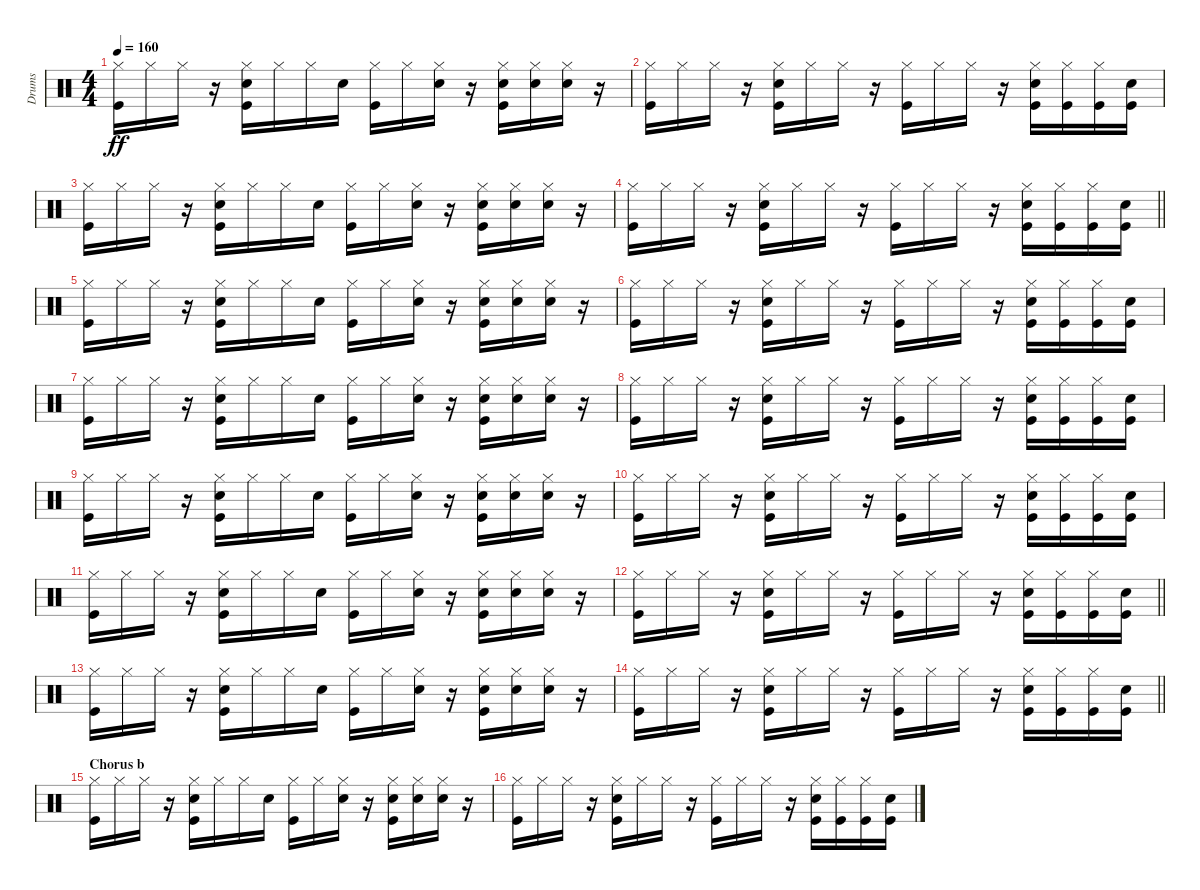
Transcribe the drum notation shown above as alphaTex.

\track ("Drums" "Drums") {instrument percussion}
\staff {score}
\articulation defaults
\ts (4 4)
\tempo 160
\clef neutral
\ks c
("Kick (hit)" "Hi-Hat (closed)").16{dy ff} "Hi-Hat (closed)".16 "Hi-Hat (closed)".16 r.16 ("Kick (hit)" "Snare (hit) 2" "Hi-Hat (closed)").16 "Hi-Hat (closed)".16 "Hi-Hat (closed)".16 "Electric Snare (hit)".16 ("Kick (hit)" "Hi-Hat (closed)").16 "Hi-Hat (closed)".16 ("Electric Snare (hit)" "Hi-Hat (closed)").16 r.16 ("Kick (hit)" "Snare (hit) 2" "Hi-Hat (closed)").16 ("Electric Snare (hit)" "Hi-Hat (closed)").16 ("Electric Snare (hit)" "Hi-Hat (closed)").16 r.16 |
("Kick (hit)" "Hi-Hat (closed)").16 "Hi-Hat (closed)".16 "Hi-Hat (closed)".16 r.16 ("Kick (hit)" "Snare (hit) 2" "Hi-Hat (closed)").16 "Hi-Hat (closed)".16 "Hi-Hat (closed)".16 r.16 ("Kick (hit)" "Hi-Hat (closed)").16 "Hi-Hat (closed)".16 "Hi-Hat (closed)".16 r.16 ("Kick (hit)" "Snare (hit) 2" "Hi-Hat (closed)").16 ("Kick (hit)" "Hi-Hat (closed)").16 ("Kick (hit)" "Hi-Hat (closed)").16 ("Kick (hit)" "Snare (hit) 2").16 |
("Kick (hit)" "Hi-Hat (closed)").16 "Hi-Hat (closed)".16 "Hi-Hat (closed)".16 r.16 ("Kick (hit)" "Snare (hit) 2" "Hi-Hat (closed)").16 "Hi-Hat (closed)".16 "Hi-Hat (closed)".16 "Electric Snare (hit)".16 ("Kick (hit)" "Hi-Hat (closed)").16 "Hi-Hat (closed)".16 ("Electric Snare (hit)" "Hi-Hat (closed)").16 r.16 ("Kick (hit)" "Snare (hit) 2" "Hi-Hat (closed)").16 ("Electric Snare (hit)" "Hi-Hat (closed)").16 ("Electric Snare (hit)" "Hi-Hat (closed)").16 r.16 |
\barLineRight lightlight
("Kick (hit)" "Hi-Hat (closed)").16 "Hi-Hat (closed)".16 "Hi-Hat (closed)".16 r.16 ("Kick (hit)" "Snare (hit) 2" "Hi-Hat (closed)").16 "Hi-Hat (closed)".16 "Hi-Hat (closed)".16 r.16 ("Kick (hit)" "Hi-Hat (closed)").16 "Hi-Hat (closed)".16 "Hi-Hat (closed)".16 r.16 ("Kick (hit)" "Snare (hit) 2" "Hi-Hat (closed)").16 ("Kick (hit)" "Hi-Hat (closed)").16 ("Kick (hit)" "Hi-Hat (closed)").16 ("Kick (hit)" "Snare (hit) 2").16 |
("Kick (hit)" "Hi-Hat (closed)").16 "Hi-Hat (closed)".16 "Hi-Hat (closed)".16 r.16 ("Kick (hit)" "Snare (hit) 2" "Hi-Hat (closed)").16 "Hi-Hat (closed)".16 "Hi-Hat (closed)".16 "Electric Snare (hit)".16 ("Kick (hit)" "Hi-Hat (closed)").16 "Hi-Hat (closed)".16 ("Electric Snare (hit)" "Hi-Hat (closed)").16 r.16 ("Kick (hit)" "Snare (hit) 2" "Hi-Hat (closed)").16 ("Electric Snare (hit)" "Hi-Hat (closed)").16 ("Electric Snare (hit)" "Hi-Hat (closed)").16 r.16 |
("Kick (hit)" "Hi-Hat (closed)").16 "Hi-Hat (closed)".16 "Hi-Hat (closed)".16 r.16 ("Kick (hit)" "Snare (hit) 2" "Hi-Hat (closed)").16 "Hi-Hat (closed)".16 "Hi-Hat (closed)".16 r.16 ("Kick (hit)" "Hi-Hat (closed)").16 "Hi-Hat (closed)".16 "Hi-Hat (closed)".16 r.16 ("Kick (hit)" "Snare (hit) 2" "Hi-Hat (closed)").16 ("Kick (hit)" "Hi-Hat (closed)").16 ("Kick (hit)" "Hi-Hat (closed)").16 ("Kick (hit)" "Snare (hit) 2").16 |
("Kick (hit)" "Hi-Hat (closed)").16 "Hi-Hat (closed)".16 "Hi-Hat (closed)".16 r.16 ("Kick (hit)" "Snare (hit) 2" "Hi-Hat (closed)").16 "Hi-Hat (closed)".16 "Hi-Hat (closed)".16 "Electric Snare (hit)".16 ("Kick (hit)" "Hi-Hat (closed)").16 "Hi-Hat (closed)".16 ("Electric Snare (hit)" "Hi-Hat (closed)").16 r.16 ("Kick (hit)" "Snare (hit) 2" "Hi-Hat (closed)").16 ("Electric Snare (hit)" "Hi-Hat (closed)").16 ("Electric Snare (hit)" "Hi-Hat (closed)").16 r.16 |
("Kick (hit)" "Hi-Hat (closed)").16 "Hi-Hat (closed)".16 "Hi-Hat (closed)".16 r.16 ("Kick (hit)" "Snare (hit) 2" "Hi-Hat (closed)").16 "Hi-Hat (closed)".16 "Hi-Hat (closed)".16 r.16 ("Kick (hit)" "Hi-Hat (closed)").16 "Hi-Hat (closed)".16 "Hi-Hat (closed)".16 r.16 ("Kick (hit)" "Snare (hit) 2" "Hi-Hat (closed)").16 ("Kick (hit)" "Hi-Hat (closed)").16 ("Kick (hit)" "Hi-Hat (closed)").16 ("Kick (hit)" "Snare (hit) 2").16 |
("Kick (hit)" "Hi-Hat (closed)").16 "Hi-Hat (closed)".16 "Hi-Hat (closed)".16 r.16 ("Kick (hit)" "Snare (hit) 2" "Hi-Hat (closed)").16 "Hi-Hat (closed)".16 "Hi-Hat (closed)".16 "Electric Snare (hit)".16 ("Kick (hit)" "Hi-Hat (closed)").16 "Hi-Hat (closed)".16 ("Electric Snare (hit)" "Hi-Hat (closed)").16 r.16 ("Kick (hit)" "Snare (hit) 2" "Hi-Hat (closed)").16 ("Electric Snare (hit)" "Hi-Hat (closed)").16 ("Electric Snare (hit)" "Hi-Hat (closed)").16 r.16 |
("Kick (hit)" "Hi-Hat (closed)").16 "Hi-Hat (closed)".16 "Hi-Hat (closed)".16 r.16 ("Kick (hit)" "Snare (hit) 2" "Hi-Hat (closed)").16 "Hi-Hat (closed)".16 "Hi-Hat (closed)".16 r.16 ("Kick (hit)" "Hi-Hat (closed)").16 "Hi-Hat (closed)".16 "Hi-Hat (closed)".16 r.16 ("Kick (hit)" "Snare (hit) 2" "Hi-Hat (closed)").16 ("Kick (hit)" "Hi-Hat (closed)").16 ("Kick (hit)" "Hi-Hat (closed)").16 ("Kick (hit)" "Snare (hit) 2").16 |
("Kick (hit)" "Hi-Hat (closed)").16 "Hi-Hat (closed)".16 "Hi-Hat (closed)".16 r.16 ("Kick (hit)" "Snare (hit) 2" "Hi-Hat (closed)").16 "Hi-Hat (closed)".16 "Hi-Hat (closed)".16 "Electric Snare (hit)".16 ("Kick (hit)" "Hi-Hat (closed)").16 "Hi-Hat (closed)".16 ("Electric Snare (hit)" "Hi-Hat (closed)").16 r.16 ("Kick (hit)" "Snare (hit) 2" "Hi-Hat (closed)").16 ("Electric Snare (hit)" "Hi-Hat (closed)").16 ("Electric Snare (hit)" "Hi-Hat (closed)").16 r.16 |
\barLineRight lightlight
("Kick (hit)" "Hi-Hat (closed)").16 "Hi-Hat (closed)".16 "Hi-Hat (closed)".16 r.16 ("Kick (hit)" "Snare (hit) 2" "Hi-Hat (closed)").16 "Hi-Hat (closed)".16 "Hi-Hat (closed)".16 r.16 ("Kick (hit)" "Hi-Hat (closed)").16 "Hi-Hat (closed)".16 "Hi-Hat (closed)".16 r.16 ("Kick (hit)" "Snare (hit) 2" "Hi-Hat (closed)").16 ("Kick (hit)" "Hi-Hat (closed)").16 ("Kick (hit)" "Hi-Hat (closed)").16 ("Kick (hit)" "Snare (hit) 2").16 |
("Kick (hit)" "Hi-Hat (closed)").16 "Hi-Hat (closed)".16 "Hi-Hat (closed)".16 r.16 ("Kick (hit)" "Snare (hit) 2" "Hi-Hat (closed)").16 "Hi-Hat (closed)".16 "Hi-Hat (closed)".16 "Electric Snare (hit)".16 ("Kick (hit)" "Hi-Hat (closed)").16 "Hi-Hat (closed)".16 ("Electric Snare (hit)" "Hi-Hat (closed)").16 r.16 ("Kick (hit)" "Snare (hit) 2" "Hi-Hat (closed)").16 ("Electric Snare (hit)" "Hi-Hat (closed)").16 ("Electric Snare (hit)" "Hi-Hat (closed)").16 r.16 |
\barLineRight lightlight
("Kick (hit)" "Hi-Hat (closed)").16 "Hi-Hat (closed)".16 "Hi-Hat (closed)".16 r.16 ("Kick (hit)" "Snare (hit) 2" "Hi-Hat (closed)").16 "Hi-Hat (closed)".16 "Hi-Hat (closed)".16 r.16 ("Kick (hit)" "Hi-Hat (closed)").16 "Hi-Hat (closed)".16 "Hi-Hat (closed)".16 r.16 ("Kick (hit)" "Snare (hit) 2" "Hi-Hat (closed)").16 ("Kick (hit)" "Hi-Hat (closed)").16 ("Kick (hit)" "Hi-Hat (closed)").16 ("Kick (hit)" "Snare (hit) 2").16 |
\section ("" "Chorus b")
("Kick (hit)" "Hi-Hat (closed)").16 "Hi-Hat (closed)".16 "Hi-Hat (closed)".16 r.16 ("Kick (hit)" "Snare (hit) 2" "Hi-Hat (closed)").16 "Hi-Hat (closed)".16 "Hi-Hat (closed)".16 "Electric Snare (hit)".16 ("Kick (hit)" "Hi-Hat (closed)").16 "Hi-Hat (closed)".16 ("Electric Snare (hit)" "Hi-Hat (closed)").16 r.16 ("Kick (hit)" "Snare (hit) 2" "Hi-Hat (closed)").16 ("Electric Snare (hit)" "Hi-Hat (closed)").16 ("Electric Snare (hit)" "Hi-Hat (closed)").16 r.16 |
("Kick (hit)" "Hi-Hat (closed)").16 "Hi-Hat (closed)".16 "Hi-Hat (closed)".16 r.16 ("Kick (hit)" "Snare (hit) 2" "Hi-Hat (closed)").16 "Hi-Hat (closed)".16 "Hi-Hat (closed)".16 r.16 ("Kick (hit)" "Hi-Hat (closed)").16 "Hi-Hat (closed)".16 "Hi-Hat (closed)".16 r.16 ("Kick (hit)" "Snare (hit) 2" "Hi-Hat (closed)").16 ("Kick (hit)" "Hi-Hat (closed)").16 ("Kick (hit)" "Hi-Hat (closed)").16 ("Kick (hit)" "Snare (hit) 2").16
